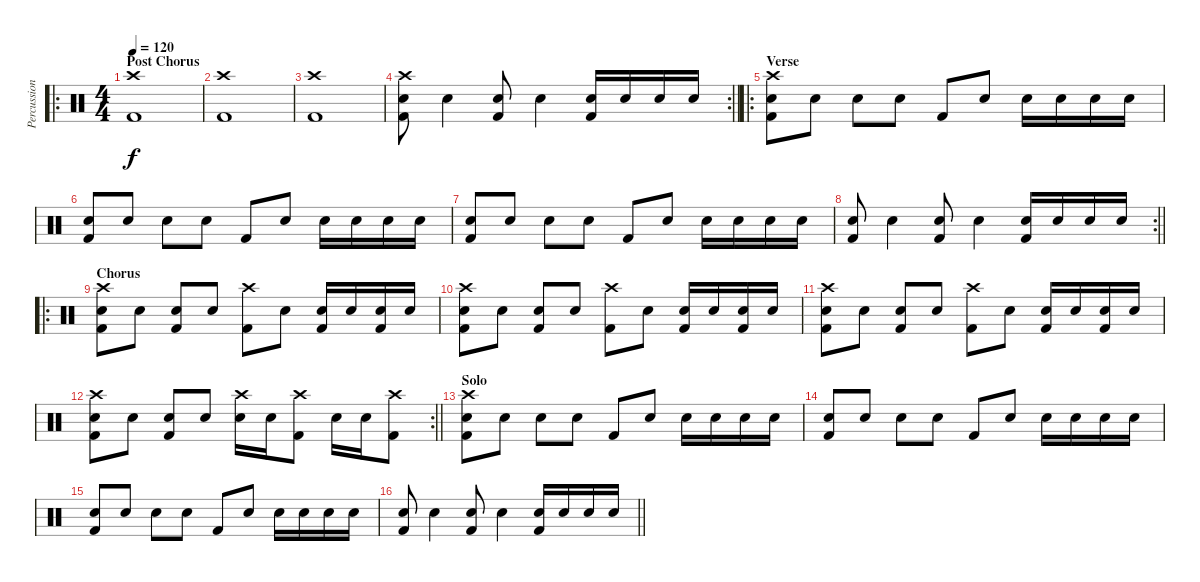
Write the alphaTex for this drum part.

\track ("Percussion" "Percussion") {instrument percussion}
\staff {score}
\articulation defaults
\ro
\ts (4 4)
\section ("" "Post Chorus")
\tempo 120
\clef neutral
\ks c
("Crash high (hit)" "Kick (hit) 2").1{dy f} |
("Crash high (hit)" "Kick (hit) 2").1 |
("Crash high (hit)" "Kick (hit) 2").1 |
\rc 2
\barLineRight lightlight
("Crash high (hit)" "Snare (hit) 2" "Kick (hit) 2").8 "Snare (hit) 2".4 ("Snare (hit) 2" "Kick (hit) 2").8 "Snare (hit) 2".4 ("Snare (hit) 2" "Kick (hit) 2").16 "Snare (hit) 2".16 "Snare (hit) 2".16 "Snare (hit) 2".16 |
\ro
\section ("" "Verse")
("Crash high (hit)" "Snare (hit) 2" "Kick (hit) 2").8 "Snare (hit) 2".8 "Snare (hit) 2".8 "Snare (hit) 2".8 "Kick (hit) 2".8 "Snare (hit) 2".8 "Snare (hit) 2".16 "Snare (hit) 2".16 "Snare (hit) 2".16 "Snare (hit) 2".16 |
("Snare (hit) 2" "Kick (hit) 2").8 "Snare (hit) 2".8 "Snare (hit) 2".8 "Snare (hit) 2".8 "Kick (hit) 2".8 "Snare (hit) 2".8 "Snare (hit) 2".16 "Snare (hit) 2".16 "Snare (hit) 2".16 "Snare (hit) 2".16 |
("Snare (hit) 2" "Kick (hit) 2").8 "Snare (hit) 2".8 "Snare (hit) 2".8 "Snare (hit) 2".8 "Kick (hit) 2".8 "Snare (hit) 2".8 "Snare (hit) 2".16 "Snare (hit) 2".16 "Snare (hit) 2".16 "Snare (hit) 2".16 |
\rc 2
\barLineRight lightlight
("Snare (hit) 2" "Kick (hit) 2").8 "Snare (hit) 2".4 ("Snare (hit) 2" "Kick (hit) 2").8 "Snare (hit) 2".4 ("Snare (hit) 2" "Kick (hit) 2").16 "Snare (hit) 2".16 "Snare (hit) 2".16 "Snare (hit) 2".16 |
\ro
\section ("" "Chorus")
("Crash high (hit)" "Snare (hit) 2" "Kick (hit) 2").8 "Snare (hit) 2".8 ("Snare (hit) 2" "Kick (hit) 2").8 "Snare (hit) 2".8 ("Crash high (hit)" "Kick (hit) 2").8 "Snare (hit) 2".8 ("Snare (hit) 2" "Kick (hit) 2").16 "Snare (hit) 2".16 ("Snare (hit) 2" "Kick (hit) 2").16 "Snare (hit) 2".16 |
("Crash high (hit)" "Snare (hit) 2" "Kick (hit) 2").8 "Snare (hit) 2".8 ("Snare (hit) 2" "Kick (hit) 2").8 "Snare (hit) 2".8 ("Crash high (hit)" "Kick (hit) 2").8 "Snare (hit) 2".8 ("Snare (hit) 2" "Kick (hit) 2").16 "Snare (hit) 2".16 ("Snare (hit) 2" "Kick (hit) 2").16 "Snare (hit) 2".16 |
("Crash high (hit)" "Snare (hit) 2" "Kick (hit) 2").8 "Snare (hit) 2".8 ("Snare (hit) 2" "Kick (hit) 2").8 "Snare (hit) 2".8 ("Crash high (hit)" "Kick (hit) 2").8 "Snare (hit) 2".8 ("Snare (hit) 2" "Kick (hit) 2").16 "Snare (hit) 2".16 ("Snare (hit) 2" "Kick (hit) 2").16 "Snare (hit) 2".16 |
\rc 2
\barLineRight lightlight
("Crash high (hit)" "Snare (hit) 2" "Kick (hit) 2").8 "Snare (hit) 2".8 ("Snare (hit) 2" "Kick (hit) 2").8 "Snare (hit) 2".8 ("Crash high (hit)" "Snare (hit) 2").16 "Snare (hit) 2".16 ("Crash high (hit)" "Kick (hit) 2").8 "Snare (hit) 2".16 "Snare (hit) 2".16 ("Crash high (hit)" "Kick (hit) 2").8 |
\section ("" "Solo")
("Crash high (hit)" "Snare (hit) 2" "Kick (hit) 2").8 "Snare (hit) 2".8 "Snare (hit) 2".8 "Snare (hit) 2".8 "Kick (hit) 2".8 "Snare (hit) 2".8 "Snare (hit) 2".16 "Snare (hit) 2".16 "Snare (hit) 2".16 "Snare (hit) 2".16 |
("Snare (hit) 2" "Kick (hit) 2").8 "Snare (hit) 2".8 "Snare (hit) 2".8 "Snare (hit) 2".8 "Kick (hit) 2".8 "Snare (hit) 2".8 "Snare (hit) 2".16 "Snare (hit) 2".16 "Snare (hit) 2".16 "Snare (hit) 2".16 |
("Snare (hit) 2" "Kick (hit) 2").8 "Snare (hit) 2".8 "Snare (hit) 2".8 "Snare (hit) 2".8 "Kick (hit) 2".8 "Snare (hit) 2".8 "Snare (hit) 2".16 "Snare (hit) 2".16 "Snare (hit) 2".16 "Snare (hit) 2".16 |
\barLineRight lightlight
("Snare (hit) 2" "Kick (hit) 2").8 "Snare (hit) 2".4 ("Snare (hit) 2" "Kick (hit) 2").8 "Snare (hit) 2".4 ("Snare (hit) 2" "Kick (hit) 2").16 "Snare (hit) 2".16 "Snare (hit) 2".16 "Snare (hit) 2".16
